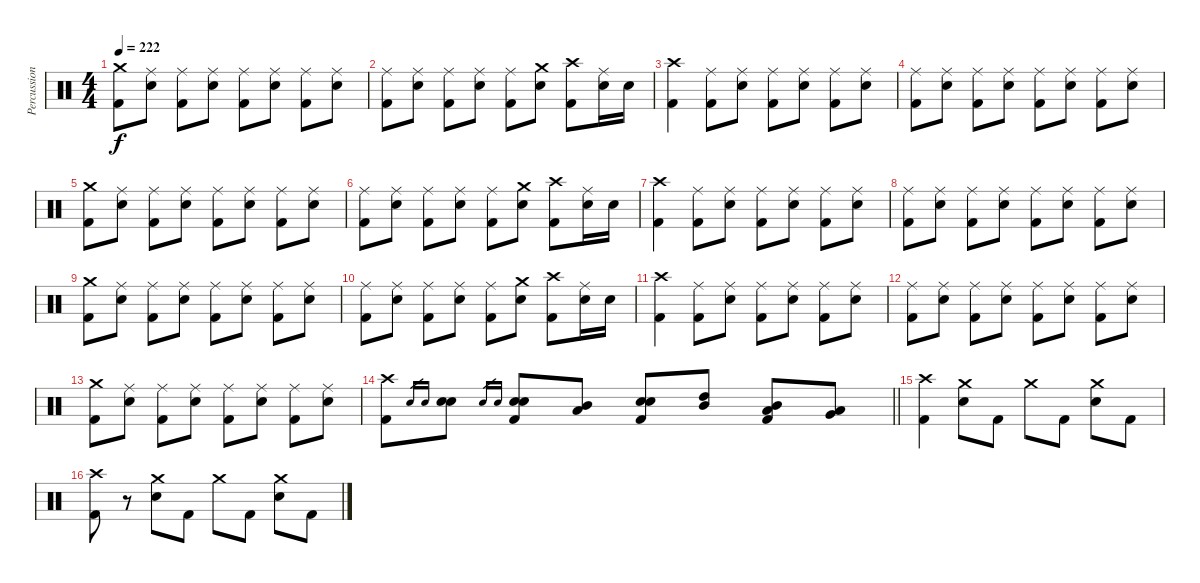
\track ("Percussions" "Percussion") {instrument percussion}
\staff {score}
\articulation defaults
\ts (4 4)
\tempo 222
\clef neutral
\ks c
("Crash medium (hit)" "Kick (hit) 2").8{dy f} ("Ride (middle)" "Electric Snare (hit)").8 ("Ride (middle)" "Kick (hit) 2").8 ("Ride (middle)" "Electric Snare (hit)").8 ("Ride (middle)" "Kick (hit) 2").8 ("Ride (middle)" "Electric Snare (hit)").8 ("Ride (middle)" "Kick (hit) 2").8 ("Ride (middle)" "Electric Snare (hit)").8 |
("Ride (middle)" "Kick (hit) 2").8 ("Ride (middle)" "Electric Snare (hit)").8 ("Ride (middle)" "Kick (hit) 2").8 ("Ride (middle)" "Electric Snare (hit)").8 ("Ride (middle)" "Kick (hit) 2").8 ("Crash medium (hit)" "Electric Snare (hit)").8 ("Crash high (hit)" "Kick (hit) 2").8 ("Ride (middle)" "Electric Snare (hit)").16 "Electric Snare (hit)".16 |
("Crash high (hit)" "Kick (hit) 2").4 ("Ride (middle)" "Kick (hit) 2").8 ("Ride (middle)" "Electric Snare (hit)").8 ("Ride (middle)" "Kick (hit) 2").8 ("Ride (middle)" "Electric Snare (hit)").8 ("Ride (middle)" "Kick (hit) 2").8 ("Ride (middle)" "Electric Snare (hit)").8 |
("Ride (middle)" "Kick (hit) 2").8 ("Ride (middle)" "Electric Snare (hit)").8 ("Ride (middle)" "Kick (hit) 2").8 ("Ride (middle)" "Electric Snare (hit)").8 ("Ride (middle)" "Kick (hit) 2").8 ("Ride (middle)" "Electric Snare (hit)").8 ("Ride (middle)" "Kick (hit) 2").8 ("Ride (middle)" "Electric Snare (hit)").8 |
("Crash medium (hit)" "Kick (hit) 2").8 ("Ride (middle)" "Electric Snare (hit)").8 ("Ride (middle)" "Kick (hit) 2").8 ("Ride (middle)" "Electric Snare (hit)").8 ("Ride (middle)" "Kick (hit) 2").8 ("Ride (middle)" "Electric Snare (hit)").8 ("Ride (middle)" "Kick (hit) 2").8 ("Ride (middle)" "Electric Snare (hit)").8 |
("Ride (middle)" "Kick (hit) 2").8 ("Ride (middle)" "Electric Snare (hit)").8 ("Ride (middle)" "Kick (hit) 2").8 ("Ride (middle)" "Electric Snare (hit)").8 ("Ride (middle)" "Kick (hit) 2").8 ("Crash medium (hit)" "Electric Snare (hit)").8 ("Crash high (hit)" "Kick (hit) 2").8 ("Ride (middle)" "Electric Snare (hit)").16 "Electric Snare (hit)".16 |
("Crash high (hit)" "Kick (hit) 2").4 ("Ride (middle)" "Kick (hit) 2").8 ("Ride (middle)" "Electric Snare (hit)").8 ("Ride (middle)" "Kick (hit) 2").8 ("Ride (middle)" "Electric Snare (hit)").8 ("Ride (middle)" "Kick (hit) 2").8 ("Ride (middle)" "Electric Snare (hit)").8 |
("Ride (middle)" "Kick (hit) 2").8 ("Ride (middle)" "Electric Snare (hit)").8 ("Ride (middle)" "Kick (hit) 2").8 ("Ride (middle)" "Electric Snare (hit)").8 ("Ride (middle)" "Kick (hit) 2").8 ("Ride (middle)" "Electric Snare (hit)").8 ("Ride (middle)" "Kick (hit) 2").8 ("Ride (middle)" "Electric Snare (hit)").8 |
("Crash medium (hit)" "Kick (hit) 2").8 ("Ride (middle)" "Electric Snare (hit)").8 ("Ride (middle)" "Kick (hit) 2").8 ("Ride (middle)" "Electric Snare (hit)").8 ("Ride (middle)" "Kick (hit) 2").8 ("Ride (middle)" "Electric Snare (hit)").8 ("Ride (middle)" "Kick (hit) 2").8 ("Ride (middle)" "Electric Snare (hit)").8 |
("Ride (middle)" "Kick (hit) 2").8 ("Ride (middle)" "Electric Snare (hit)").8 ("Ride (middle)" "Kick (hit) 2").8 ("Ride (middle)" "Electric Snare (hit)").8 ("Ride (middle)" "Kick (hit) 2").8 ("Crash medium (hit)" "Electric Snare (hit)").8 ("Crash high (hit)" "Kick (hit) 2").8 ("Ride (middle)" "Electric Snare (hit)").16 "Electric Snare (hit)".16 |
("Crash high (hit)" "Kick (hit) 2").4 ("Ride (middle)" "Kick (hit) 2").8 ("Ride (middle)" "Electric Snare (hit)").8 ("Ride (middle)" "Kick (hit) 2").8 ("Ride (middle)" "Electric Snare (hit)").8 ("Ride (middle)" "Kick (hit) 2").8 ("Ride (middle)" "Electric Snare (hit)").8 |
("Ride (middle)" "Kick (hit) 2").8 ("Ride (middle)" "Electric Snare (hit)").8 ("Ride (middle)" "Kick (hit) 2").8 ("Ride (middle)" "Electric Snare (hit)").8 ("Ride (middle)" "Kick (hit) 2").8 ("Ride (middle)" "Electric Snare (hit)").8 ("Ride (middle)" "Kick (hit) 2").8 ("Ride (middle)" "Electric Snare (hit)").8 |
("Crash medium (hit)" "Kick (hit) 2").8 ("Ride (middle)" "Electric Snare (hit)").8 ("Ride (middle)" "Kick (hit) 2").8 ("Ride (middle)" "Electric Snare (hit)").8 ("Ride (middle)" "Kick (hit) 2").8 ("Ride (middle)" "Electric Snare (hit)").8 ("Ride (middle)" "Kick (hit) 2").8 ("Ride (middle)" "Electric Snare (hit)").8 |
\barLineRight lightlight
("Crash high (hit)" "Kick (hit) 2").8 "Electric Snare (hit)".16{gr} "Electric Snare (hit)".16{gr} ("Electric Snare (hit)" "Electric Snare (hit)").8 "Electric Snare (hit)".16{gr} "Electric Snare (hit)".16{gr} ("Electric Snare (hit)" "Electric Snare (hit)" "Kick (hit) 2").8 ("Mid Tom (hit)" "Low Tom (hit)").8 ("Electric Snare (hit)" "Electric Snare (hit)" "Kick (hit) 2").8 ("High Tom (hit)" "Mid Tom (hit)").8 ("Mid Tom (hit)" "Low Tom (hit)" "Kick (hit) 2").8 ("Low Tom (hit)" "Very Low Tom (hit)").8 |
\section ("" "")
("Crash high (hit)" "Kick (hit) 2").4 ("Crash medium (hit)" "Electric Snare (hit)").8 "Kick (hit) 2".8 "Crash medium (hit)".8 "Kick (hit) 2".8 ("Crash medium (hit)" "Electric Snare (hit)").8 "Kick (hit) 2".8 |
("Crash high (hit)" "Kick (hit) 2").8 r.8 ("Crash medium (hit)" "Electric Snare (hit)").8 "Kick (hit) 2".8 "Crash medium (hit)".8 "Kick (hit) 2".8 ("Crash medium (hit)" "Electric Snare (hit)").8 "Kick (hit) 2".8
